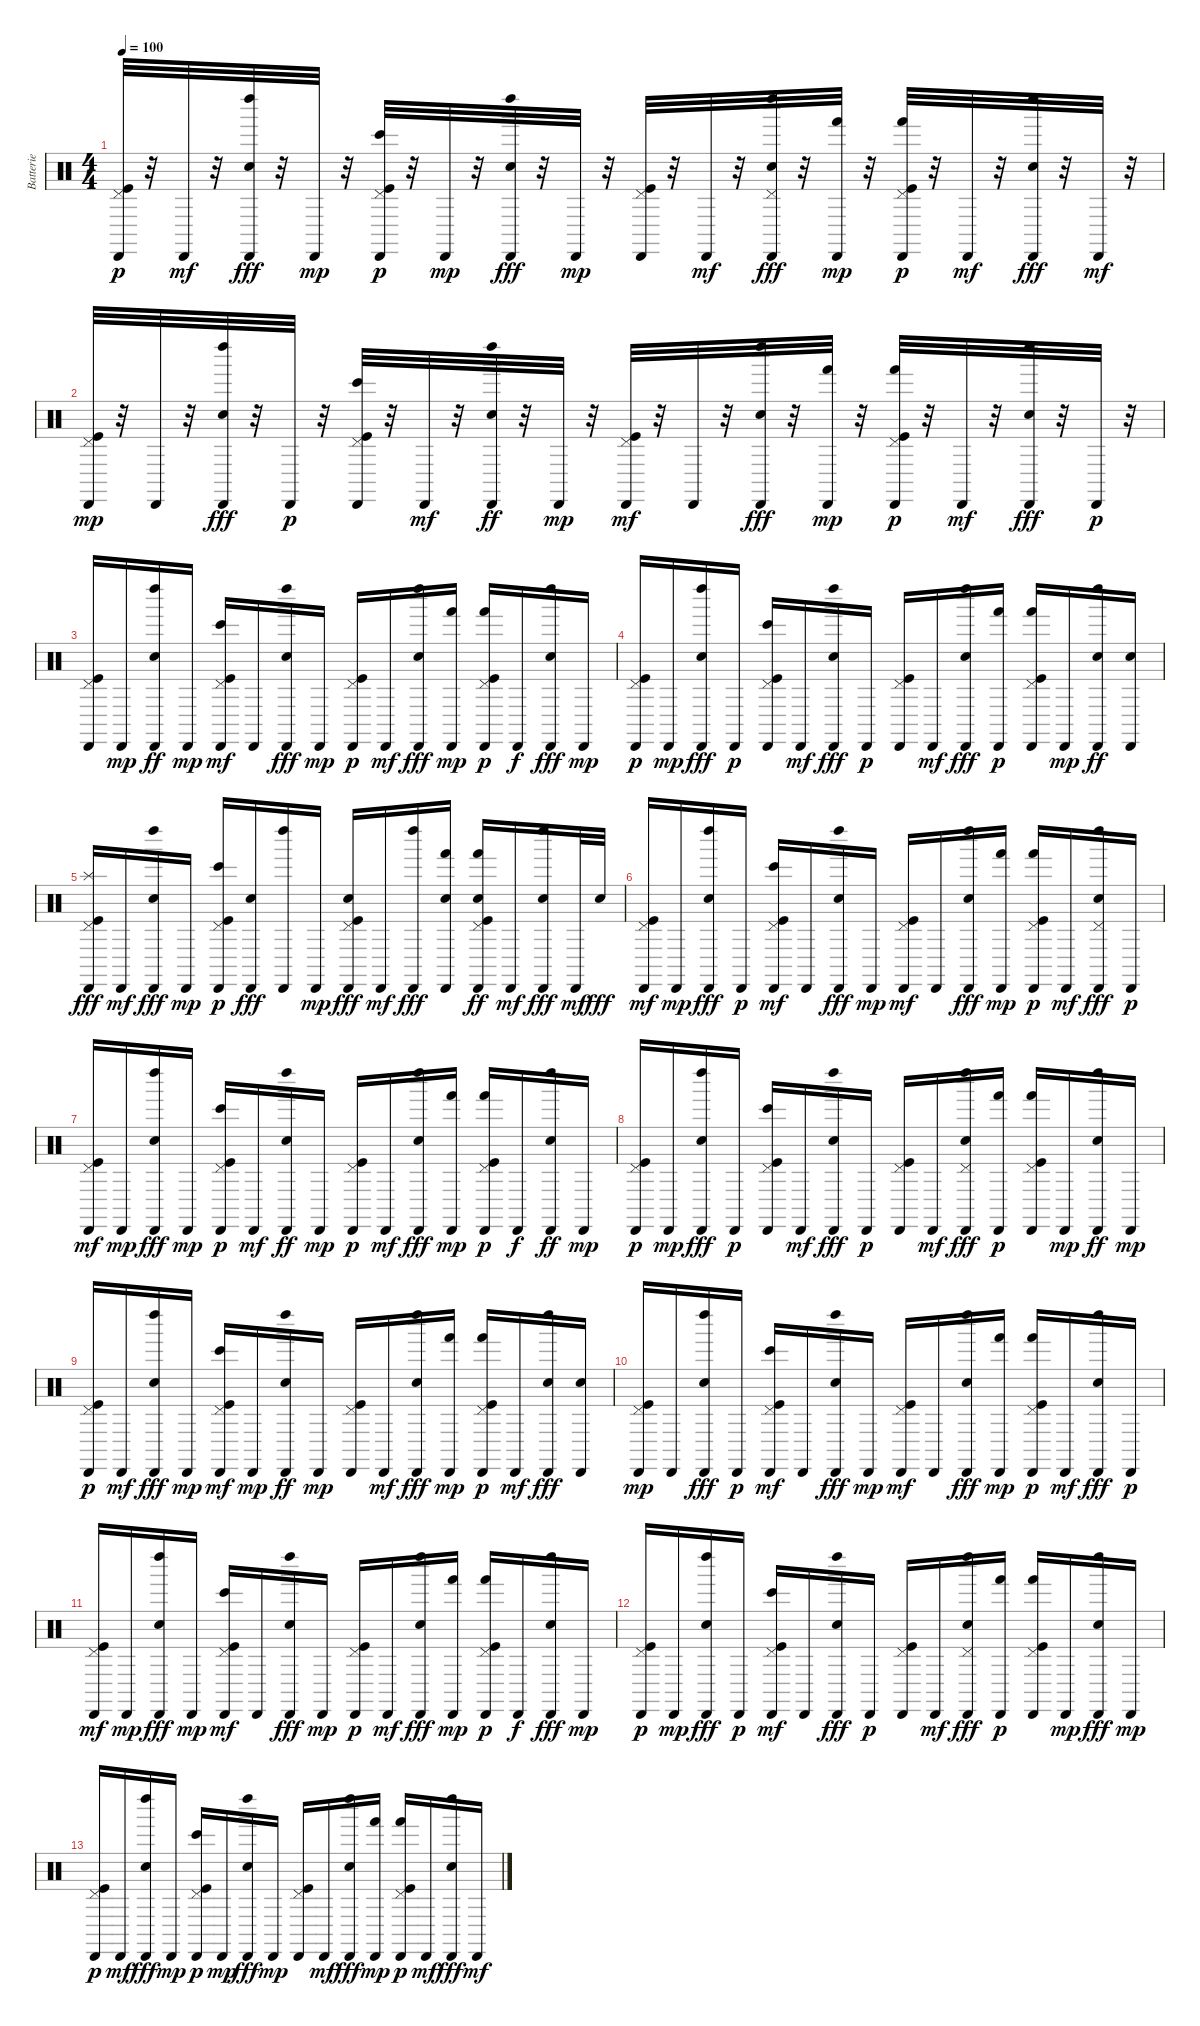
\track ("Batterie" "Batterie") {instrument percussion}
\staff {score}
\articulation defaults
\ts (4 4)
\tempo 100
\clef neutral
\ks c
("Pedal Hi-Hat (hit)" "Cabasa (hit)" "Kick (hit)").32{dy p} r.32 "Cabasa (hit)".32{dy mf} r.32 ("Cabasa (hit)" "Left Maraca (hit)" "Hand Clap (hit)").32{dy fff} r.32 "Cabasa (hit)".32{dy mp} r.32 ("Pedal Hi-Hat (hit)" "Bongo High (hit)" "Cabasa (hit)" "Kick (hit)").32{dy p} r.32 "Cabasa (hit)".32{dy mp} r.32 ("Cabasa (hit)" "Left Maraca (hit)" "Hand Clap (hit)").32{dy fff} r.32 "Cabasa (hit)".32{dy mp} r.32 ("Pedal Hi-Hat (hit)" "Cabasa (hit)" "Kick (hit)").32 r.32 "Cabasa (hit)".32{dy mf} r.32 ("Pedal Hi-Hat (hit)" "Cabasa (hit)" "Left Maraca (hit)" "Hand Clap (hit)").32{dy fff} r.32 ("Hand (hit)" "Cabasa (hit)").32{dy mp} r.32 ("Kick (hit)" "Pedal Hi-Hat (hit)" "Hand (hit)" "Cabasa (hit)").32{dy p} r.32 "Cabasa (hit)".32{dy mf} r.32 ("Cabasa (hit)" "Left Maraca (hit)" "Hand Clap (hit)").32{dy fff} r.32 "Cabasa (hit)".32{dy mf} r.32 |
("Kick (hit)" "Pedal Hi-Hat (hit)" "Cabasa (hit)").32{dy mp} r.32 "Cabasa (hit)".32 r.32 ("Cabasa (hit)" "Left Maraca (hit)" "Hand Clap (hit)").32{dy fff} r.32 "Cabasa (hit)".32{dy p} r.32 ("Cabasa (hit)" "Pedal Hi-Hat (hit)" "Bongo High (hit)" "Kick (hit)").32 r.32 "Cabasa (hit)".32{dy mf} r.32 ("Cabasa (hit)" "Left Maraca (hit)" "Hand Clap (hit)").32{dy ff} r.32 "Cabasa (hit)".32{dy mp} r.32 ("Cabasa (hit)" "Pedal Hi-Hat (hit)" "Kick (hit)").32{dy mf} r.32 "Cabasa (hit)".32 r.32 ("Cabasa (hit)" "Hand Clap (hit)" "Left Maraca (hit)").32{dy fff} r.32 ("Hand (hit)" "Cabasa (hit)").32{dy mp} r.32 ("Hand (hit)" "Cabasa (hit)" "Pedal Hi-Hat (hit)" "Kick (hit)").32{dy p} r.32 "Cabasa (hit)".32{dy mf} r.32 ("Cabasa (hit)" "Left Maraca (hit)" "Hand Clap (hit)").32{dy fff} r.32 "Cabasa (hit)".32{dy p} r.32 |
("Cabasa (hit)" "Pedal Hi-Hat (hit)" "Kick (hit)").16 "Cabasa (hit)".16{dy mp} ("Cabasa (hit)" "Left Maraca (hit)" "Hand Clap (hit)").16{dy ff} "Cabasa (hit)".16{dy mp} ("Cabasa (hit)" "Bongo High (hit)" "Pedal Hi-Hat (hit)" "Kick (hit)").16{dy mf} "Cabasa (hit)".16 ("Cabasa (hit)" "Left Maraca (hit)" "Hand Clap (hit)").16{dy fff} "Cabasa (hit)".16{dy mp} ("Pedal Hi-Hat (hit)" "Cabasa (hit)" "Kick (hit)").16{dy p} "Cabasa (hit)".16{dy mf} ("Left Maraca (hit)" "Cabasa (hit)" "Hand Clap (hit)").16{dy fff} ("Hand (hit)" "Cabasa (hit)").16{dy mp} ("Kick (hit)" "Pedal Hi-Hat (hit)" "Hand (hit)" "Cabasa (hit)").16{dy p} "Cabasa (hit)".16{dy f} ("Left Maraca (hit)" "Cabasa (hit)" "Hand Clap (hit)").16{dy fff} "Cabasa (hit)".16{dy mp} |
("Kick (hit)" "Pedal Hi-Hat (hit)" "Cabasa (hit)").16{dy p} "Cabasa (hit)".16{dy mp} ("Cabasa (hit)" "Left Maraca (hit)" "Hand Clap (hit)").16{dy fff} "Cabasa (hit)".16{dy p} ("Pedal Hi-Hat (hit)" "Cabasa (hit)" "Bongo High (hit)" "Kick (hit)").16 "Cabasa (hit)".16{dy mf} ("Cabasa (hit)" "Left Maraca (hit)" "Hand Clap (hit)").16{dy fff} "Cabasa (hit)".16{dy p} ("Pedal Hi-Hat (hit)" "Kick (hit)" "Cabasa (hit)").16 "Cabasa (hit)".16{dy mf} ("Hand Clap (hit)" "Left Maraca (hit)" "Cabasa (hit)").16{dy fff} ("Hand (hit)" "Cabasa (hit)").16{dy p} ("Pedal Hi-Hat (hit)" "Hand (hit)" "Kick (hit)" "Cabasa (hit)").16 "Cabasa (hit)".16{dy mp} ("Cabasa (hit)" "Left Maraca (hit)" "Hand Clap (hit)").16{dy ff} ("Cabasa (hit)" "Hand Clap (hit)").16 |
("Kick (hit)" "Pedal Hi-Hat (hit)" "Cabasa (hit)" "Splash (hit)").16{dy fff} "Cabasa (hit)".16{dy mf} ("Left Maraca (hit)" "Cabasa (hit)" "Hand Clap (hit)").16{dy fff} "Cabasa (hit)".16{dy mp} ("Pedal Hi-Hat (hit)" "Cabasa (hit)" "Bongo High (hit)" "Kick (hit)").16{dy p} ("Cabasa (hit)" "Hand Clap (hit)").16{dy fff} ("Cabasa (hit)" "Left Maraca (hit)").16 "Cabasa (hit)".16{dy mp} ("Pedal Hi-Hat (hit)" "Cabasa (hit)" "Kick (hit)" "Hand Clap (hit)").16{dy fff} "Cabasa (hit)".16{dy mf} ("Cabasa (hit)" "Left Maraca (hit)").16{dy fff} ("Cabasa (hit)" "Hand (hit)" "Hand Clap (hit)").16 ("Hand (hit)" "Pedal Hi-Hat (hit)" "Cabasa (hit)" "Hand Clap (hit)" "Kick (hit)").16{dy ff} "Cabasa (hit)".16{dy mf} ("Cabasa (hit)" "Hand Clap (hit)" "Left Maraca (hit)").16{dy fff} "Cabasa (hit)".32{dy mf} "Hand Clap (hit)".32{dy fff} |
("Cabasa (hit)" "Kick (hit)" "Pedal Hi-Hat (hit)").16{dy mf} "Cabasa (hit)".16{dy mp} ("Cabasa (hit)" "Left Maraca (hit)" "Hand Clap (hit)").16{dy fff} "Cabasa (hit)".16{dy p} ("Cabasa (hit)" "Bongo High (hit)" "Pedal Hi-Hat (hit)" "Kick (hit)").16{dy mf} "Cabasa (hit)".16 ("Cabasa (hit)" "Hand Clap (hit)" "Left Maraca (hit)").16{dy fff} "Cabasa (hit)".16{dy mp} ("Cabasa (hit)" "Pedal Hi-Hat (hit)" "Kick (hit)").16{dy mf} "Cabasa (hit)".16 ("Hand Clap (hit)" "Left Maraca (hit)" "Cabasa (hit)").16{dy fff} ("Hand (hit)" "Cabasa (hit)").16{dy mp} ("Pedal Hi-Hat (hit)" "Hand (hit)" "Cabasa (hit)" "Kick (hit)").16{dy p} "Cabasa (hit)".16{dy mf} ("Left Maraca (hit)" "Pedal Hi-Hat (hit)" "Hand Clap (hit)" "Cabasa (hit)").16{dy fff} "Cabasa (hit)".16{dy p} |
("Cabasa (hit)" "Kick (hit)" "Pedal Hi-Hat (hit)").16{dy mf} "Cabasa (hit)".16{dy mp} ("Left Maraca (hit)" "Cabasa (hit)" "Hand Clap (hit)").16{dy fff} "Cabasa (hit)".16{dy mp} ("Bongo High (hit)" "Pedal Hi-Hat (hit)" "Cabasa (hit)" "Kick (hit)").16{dy p} "Cabasa (hit)".16{dy mf} ("Cabasa (hit)" "Hand Clap (hit)" "Left Maraca (hit)").16{dy ff} "Cabasa (hit)".16{dy mp} ("Pedal Hi-Hat (hit)" "Cabasa (hit)" "Kick (hit)").16{dy p} "Cabasa (hit)".16{dy mf} ("Hand Clap (hit)" "Cabasa (hit)" "Left Maraca (hit)").16{dy fff} ("Hand (hit)" "Cabasa (hit)").16{dy mp} ("Pedal Hi-Hat (hit)" "Kick (hit)" "Hand (hit)" "Cabasa (hit)").16{dy p} "Cabasa (hit)".16{dy f} ("Hand Clap (hit)" "Left Maraca (hit)" "Cabasa (hit)").16{dy ff} "Cabasa (hit)".16{dy mp} |
("Kick (hit)" "Pedal Hi-Hat (hit)" "Cabasa (hit)").16{dy p} "Cabasa (hit)".16{dy mp} ("Cabasa (hit)" "Hand Clap (hit)" "Left Maraca (hit)").16{dy fff} "Cabasa (hit)".16{dy p} ("Kick (hit)" "Pedal Hi-Hat (hit)" "Bongo High (hit)" "Cabasa (hit)").16 "Cabasa (hit)".16{dy mf} ("Cabasa (hit)" "Hand Clap (hit)" "Left Maraca (hit)").16{dy fff} "Cabasa (hit)".16{dy p} ("Pedal Hi-Hat (hit)" "Kick (hit)" "Cabasa (hit)").16 "Cabasa (hit)".16{dy mf} ("Pedal Hi-Hat (hit)" "Hand Clap (hit)" "Left Maraca (hit)" "Cabasa (hit)").16{dy fff} ("Hand (hit)" "Cabasa (hit)").16{dy p} ("Kick (hit)" "Hand (hit)" "Pedal Hi-Hat (hit)" "Cabasa (hit)").16 "Cabasa (hit)".16{dy mp} ("Hand Clap (hit)" "Cabasa (hit)" "Left Maraca (hit)").16{dy ff} "Cabasa (hit)".16{dy mp} |
("Kick (hit)" "Pedal Hi-Hat (hit)" "Cabasa (hit)").16{dy p} "Cabasa (hit)".16{dy mf} ("Cabasa (hit)" "Hand Clap (hit)" "Left Maraca (hit)").16{dy fff} "Cabasa (hit)".16{dy mp} ("Cabasa (hit)" "Pedal Hi-Hat (hit)" "Kick (hit)" "Bongo High (hit)").16{dy mf} "Cabasa (hit)".16{dy mp} ("Cabasa (hit)" "Left Maraca (hit)" "Hand Clap (hit)").16{dy ff} "Cabasa (hit)".16{dy mp} ("Cabasa (hit)" "Kick (hit)" "Pedal Hi-Hat (hit)").16 "Cabasa (hit)".16{dy mf} ("Hand Clap (hit)" "Cabasa (hit)" "Left Maraca (hit)").16{dy fff} ("Hand (hit)" "Cabasa (hit)").16{dy mp} ("Kick (hit)" "Hand (hit)" "Cabasa (hit)" "Pedal Hi-Hat (hit)").16{dy p} "Cabasa (hit)".16{dy mf} ("Cabasa (hit)" "Hand Clap (hit)" "Left Maraca (hit)").16{dy fff} ("Cabasa (hit)" "Hand Clap (hit)").16 |
("Kick (hit)" "Cabasa (hit)" "Pedal Hi-Hat (hit)").16{dy mp} "Cabasa (hit)".16 ("Cabasa (hit)" "Left Maraca (hit)" "Hand Clap (hit)").16{dy fff} "Cabasa (hit)".16{dy p} ("Cabasa (hit)" "Bongo High (hit)" "Kick (hit)" "Pedal Hi-Hat (hit)").16{dy mf} "Cabasa (hit)".16 ("Cabasa (hit)" "Left Maraca (hit)" "Hand Clap (hit)").16{dy fff} "Cabasa (hit)".16{dy mp} ("Cabasa (hit)" "Kick (hit)" "Pedal Hi-Hat (hit)").16{dy mf} "Cabasa (hit)".16 ("Cabasa (hit)" "Hand Clap (hit)" "Left Maraca (hit)").16{dy fff} ("Hand (hit)" "Cabasa (hit)").16{dy mp} ("Kick (hit)" "Hand (hit)" "Pedal Hi-Hat (hit)" "Cabasa (hit)").16{dy p} "Cabasa (hit)".16{dy mf} ("Left Maraca (hit)" "Hand Clap (hit)" "Cabasa (hit)").16{dy fff} "Cabasa (hit)".16{dy p} |
("Kick (hit)" "Cabasa (hit)" "Pedal Hi-Hat (hit)").16{dy mf} "Cabasa (hit)".16{dy mp} ("Left Maraca (hit)" "Cabasa (hit)" "Hand Clap (hit)").16{dy fff} "Cabasa (hit)".16{dy mp} ("Bongo High (hit)" "Cabasa (hit)" "Pedal Hi-Hat (hit)" "Kick (hit)").16{dy mf} "Cabasa (hit)".16 ("Cabasa (hit)" "Hand Clap (hit)" "Left Maraca (hit)").16{dy fff} "Cabasa (hit)".16{dy mp} ("Pedal Hi-Hat (hit)" "Kick (hit)" "Cabasa (hit)").16{dy p volume 3} "Cabasa (hit)".16{dy mf} ("Hand Clap (hit)" "Cabasa (hit)" "Left Maraca (hit)").16{dy fff} ("Cabasa (hit)" "Hand (hit)").16{dy mp} ("Kick (hit)" "Pedal Hi-Hat (hit)" "Hand (hit)" "Cabasa (hit)").16{dy p} "Cabasa (hit)".16{dy f} ("Left Maraca (hit)" "Cabasa (hit)" "Hand Clap (hit)").16{dy fff} "Cabasa (hit)".16{dy mp} |
("Kick (hit)" "Pedal Hi-Hat (hit)" "Cabasa (hit)").16{dy p} "Cabasa (hit)".16{dy mp} ("Cabasa (hit)" "Hand Clap (hit)" "Left Maraca (hit)").16{dy fff} "Cabasa (hit)".16{dy p} ("Kick (hit)" "Pedal Hi-Hat (hit)" "Cabasa (hit)" "Bongo High (hit)").16{dy mf} "Cabasa (hit)".16 ("Hand Clap (hit)" "Cabasa (hit)" "Left Maraca (hit)").16{dy fff} "Cabasa (hit)".16{dy p} ("Kick (hit)" "Pedal Hi-Hat (hit)" "Cabasa (hit)").16 "Cabasa (hit)".16{dy mf} ("Pedal Hi-Hat (hit)" "Hand Clap (hit)" "Left Maraca (hit)" "Cabasa (hit)").16{dy fff} ("Hand (hit)" "Cabasa (hit)").16{dy p} ("Kick (hit)" "Hand (hit)" "Pedal Hi-Hat (hit)" "Cabasa (hit)").16 "Cabasa (hit)".16{dy mp} ("Cabasa (hit)" "Left Maraca (hit)" "Hand Clap (hit)").16{dy fff} "Cabasa (hit)".16{dy mp} |
("Kick (hit)" "Pedal Hi-Hat (hit)" "Cabasa (hit)").16{dy p} "Cabasa (hit)".16{dy mf} ("Cabasa (hit)" "Left Maraca (hit)" "Hand Clap (hit)").16{dy fff} "Cabasa (hit)".16{dy mp} ("Bongo High (hit)" "Cabasa (hit)" "Pedal Hi-Hat (hit)" "Kick (hit)").16{dy p} "Cabasa (hit)".16{dy mp} ("Cabasa (hit)" "Hand Clap (hit)" "Left Maraca (hit)").16{dy fff} "Cabasa (hit)".16{dy mp} ("Pedal Hi-Hat (hit)" "Cabasa (hit)" "Kick (hit)").16 "Cabasa (hit)".16{dy mf} ("Cabasa (hit)" "Hand Clap (hit)" "Left Maraca (hit)").16{dy fff} ("Cabasa (hit)" "Hand (hit)").16{dy mp} ("Pedal Hi-Hat (hit)" "Hand (hit)" "Kick (hit)" "Cabasa (hit)").16{dy p} "Cabasa (hit)".16{dy mf} ("Cabasa (hit)" "Left Maraca (hit)" "Hand Clap (hit)").16{dy fff} "Cabasa (hit)".16{dy mf}
